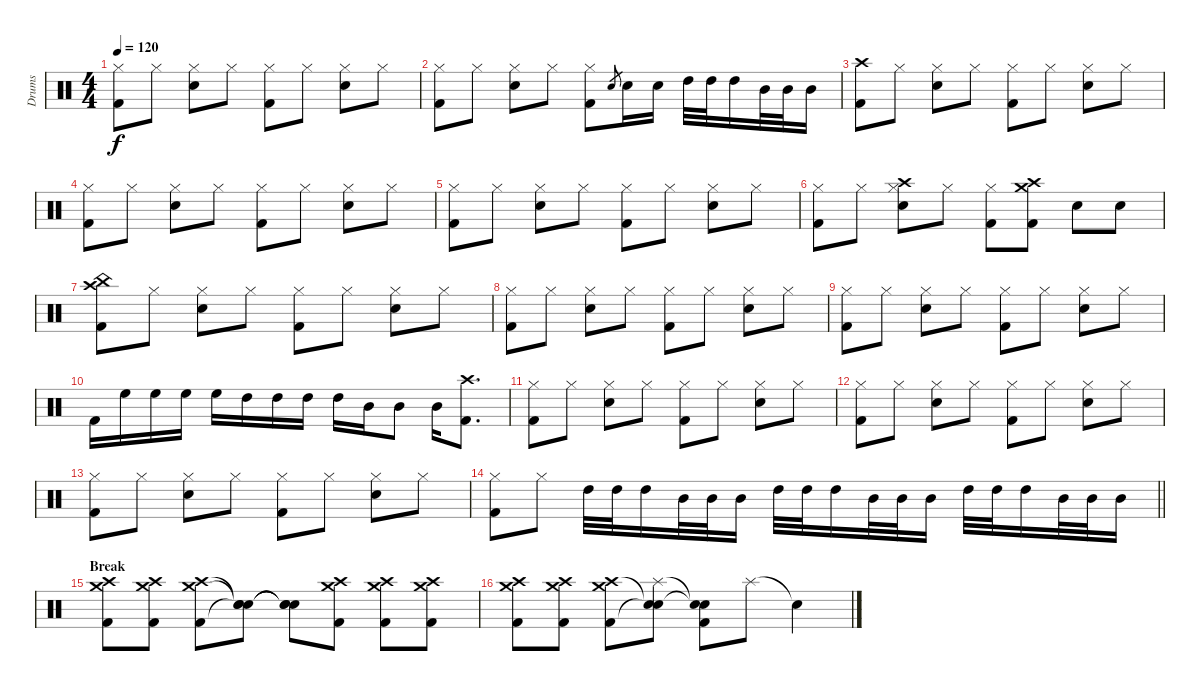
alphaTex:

\track ("Drums" "Drums") {instrument percussion}
\staff {score}
\articulation defaults
\ts (4 4)
\tempo 120
\clef neutral
\ks c
("Hi-Hat (closed)" "Kick (hit) 2").8{dy f} "Hi-Hat (closed)".8 ("Hi-Hat (closed)" "Snare (hit) 2").8 "Hi-Hat (closed)".8 ("Hi-Hat (closed)" "Kick (hit) 2").8 "Hi-Hat (closed)".8 ("Hi-Hat (closed)" "Snare (hit) 2").8 "Hi-Hat (closed)".8 |
("Hi-Hat (closed)" "Kick (hit) 2").8 "Hi-Hat (closed)".8 ("Hi-Hat (closed)" "Snare (hit) 2").8 "Hi-Hat (closed)".8 ("Hi-Hat (closed)" "Kick (hit) 2").8 "Snare (hit) 2".8{gr} "Snare (hit) 2".16 "Snare (hit) 2".16 "High Tom (hit)".32 "High Tom (hit)".32 "High Tom (hit)".16 "Mid Tom (hit)".32 "Mid Tom (hit)".32 "Mid Tom (hit)".16 |
("Crash high (hit)" "Kick (hit) 2").8 "Hi-Hat (closed)".8 ("Hi-Hat (closed)" "Snare (hit) 2").8 "Hi-Hat (closed)".8 ("Hi-Hat (closed)" "Kick (hit) 2").8 "Hi-Hat (closed)".8 ("Hi-Hat (closed)" "Snare (hit) 2").8 "Hi-Hat (closed)".8 |
("Hi-Hat (closed)" "Kick (hit) 2").8 "Hi-Hat (closed)".8 ("Hi-Hat (closed)" "Snare (hit) 2").8 "Hi-Hat (closed)".8 ("Hi-Hat (closed)" "Kick (hit) 2").8 "Hi-Hat (closed)".8 ("Hi-Hat (closed)" "Snare (hit) 2").8 "Hi-Hat (closed)".8 |
("Hi-Hat (closed)" "Kick (hit) 2").8 "Hi-Hat (closed)".8 ("Hi-Hat (closed)" "Snare (hit) 2").8 "Hi-Hat (closed)".8 ("Hi-Hat (closed)" "Kick (hit) 2").8 "Hi-Hat (closed)".8 ("Hi-Hat (closed)" "Snare (hit) 2").8 "Hi-Hat (closed)".8 |
("Hi-Hat (closed)" "Kick (hit) 2").8 "Hi-Hat (closed)".8 ("Crash high (hit)" "Hi-Hat (closed)" "Snare (hit) 2").8 "Hi-Hat (closed)".8 ("Hi-Hat (closed)" "Kick (hit) 2").8 ("Crash high (hit)" "Crash medium (hit)" "Kick (hit) 2").8 "Electric Snare (hit)".8 "Electric Snare (hit)".8 |
("China (hit)" "Crash high (hit)" "Kick (hit) 2").8 "Hi-Hat (closed)".8 ("Hi-Hat (closed)" "Snare (hit) 2").8 "Hi-Hat (closed)".8 ("Hi-Hat (closed)" "Kick (hit) 2").8 "Hi-Hat (closed)".8 ("Hi-Hat (closed)" "Snare (hit) 2").8 "Hi-Hat (closed)".8 |
("Hi-Hat (closed)" "Kick (hit) 2").8 "Hi-Hat (closed)".8 ("Hi-Hat (closed)" "Snare (hit) 2").8 "Hi-Hat (closed)".8 ("Hi-Hat (closed)" "Kick (hit) 2").8 "Hi-Hat (closed)".8 ("Hi-Hat (closed)" "Snare (hit) 2").8 "Hi-Hat (closed)".8 |
("Hi-Hat (closed)" "Kick (hit) 2").8 "Hi-Hat (closed)".8 ("Hi-Hat (closed)" "Snare (hit) 2").8 "Hi-Hat (closed)".8 ("Hi-Hat (closed)" "Kick (hit) 2").8 "Hi-Hat (closed)".8 ("Hi-Hat (closed)" "Snare (hit) 2").8 "Hi-Hat (closed)".8 |
"Kick (hit) 2".16 "High Floor Tom (hit)".16 "High Floor Tom (hit)".16 "High Floor Tom (hit)".16 "High Floor Tom (hit)".16 "High Tom (hit)".16 "High Tom (hit)".16 "High Tom (hit)".16 "High Tom (hit)".16 "Mid Tom (hit)".16 "Mid Tom (hit)".8 "Mid Tom (hit)".16 ("Crash high (hit)" "Kick (hit) 2").8{d} |
("Hi-Hat (closed)" "Kick (hit) 2").8 "Hi-Hat (closed)".8 ("Hi-Hat (closed)" "Snare (hit) 2").8 "Hi-Hat (closed)".8 ("Hi-Hat (closed)" "Kick (hit) 2").8 "Hi-Hat (closed)".8 ("Hi-Hat (closed)" "Snare (hit) 2").8 "Hi-Hat (closed)".8 |
("Hi-Hat (closed)" "Kick (hit) 2").8 "Hi-Hat (closed)".8 ("Hi-Hat (closed)" "Snare (hit) 2").8 "Hi-Hat (closed)".8 ("Hi-Hat (closed)" "Kick (hit) 2").8 "Hi-Hat (closed)".8 ("Hi-Hat (closed)" "Snare (hit) 2").8 "Hi-Hat (closed)".8 |
("Hi-Hat (closed)" "Kick (hit) 2").8 "Hi-Hat (closed)".8 ("Hi-Hat (closed)" "Snare (hit) 2").8 "Hi-Hat (closed)".8 ("Hi-Hat (closed)" "Kick (hit) 2").8 "Hi-Hat (closed)".8 ("Hi-Hat (closed)" "Snare (hit) 2").8 "Hi-Hat (closed)".8 |
\barLineRight lightlight
("Hi-Hat (closed)" "Kick (hit) 2").8 "Hi-Hat (closed)".8 "High Tom (hit)".32 "High Tom (hit)".32 "High Tom (hit)".16 "Mid Tom (hit)".32 "Mid Tom (hit)".32 "Mid Tom (hit)".16 "High Tom (hit)".32 "High Tom (hit)".32 "High Tom (hit)".16 "Mid Tom (hit)".32 "Mid Tom (hit)".32 "Mid Tom (hit)".16 "High Tom (hit)".32 "High Tom (hit)".32 "High Tom (hit)".16 "Mid Tom (hit)".32 "Mid Tom (hit)".32 "Mid Tom (hit)".16 |
\section ("" "Break")
("Crash high (hit)" "Crash medium (hit)" "Kick (hit) 2").8 ("Crash high (hit)" "Crash medium (hit)" "Kick (hit) 2").8 ("Crash high (hit)" "Crash medium (hit)" "Kick (hit) 2").8 ("Snare (hit)"{t} "Snare (hit)"{t} "Snare (hit)"{t}).8 ("Snare (hit)"{t} "Snare (hit)"{t} "Snare (hit)"{t}).8 ("Crash high (hit)" "Crash medium (hit)" "Kick (hit) 2").8 ("Crash high (hit)" "Crash medium (hit)" "Kick (hit) 2").8 ("Crash high (hit)" "Crash medium (hit)" "Kick (hit) 2").8 |
("Crash high (hit)" "Crash medium (hit)" "Kick (hit) 2").8 ("Crash high (hit)" "Crash medium (hit)" "Kick (hit) 2").8 ("Crash high (hit)" "Crash medium (hit)" "Kick (hit) 2").8 ("Snare (hit)"{t} "Splash (hit)" "Snare (hit)"{t}).8 ("Snare (hit)"{t} "Snare (hit)"{t} "Kick (hit) 2").8 "Splash (hit)".8 "Snare (hit)"{t}.4
